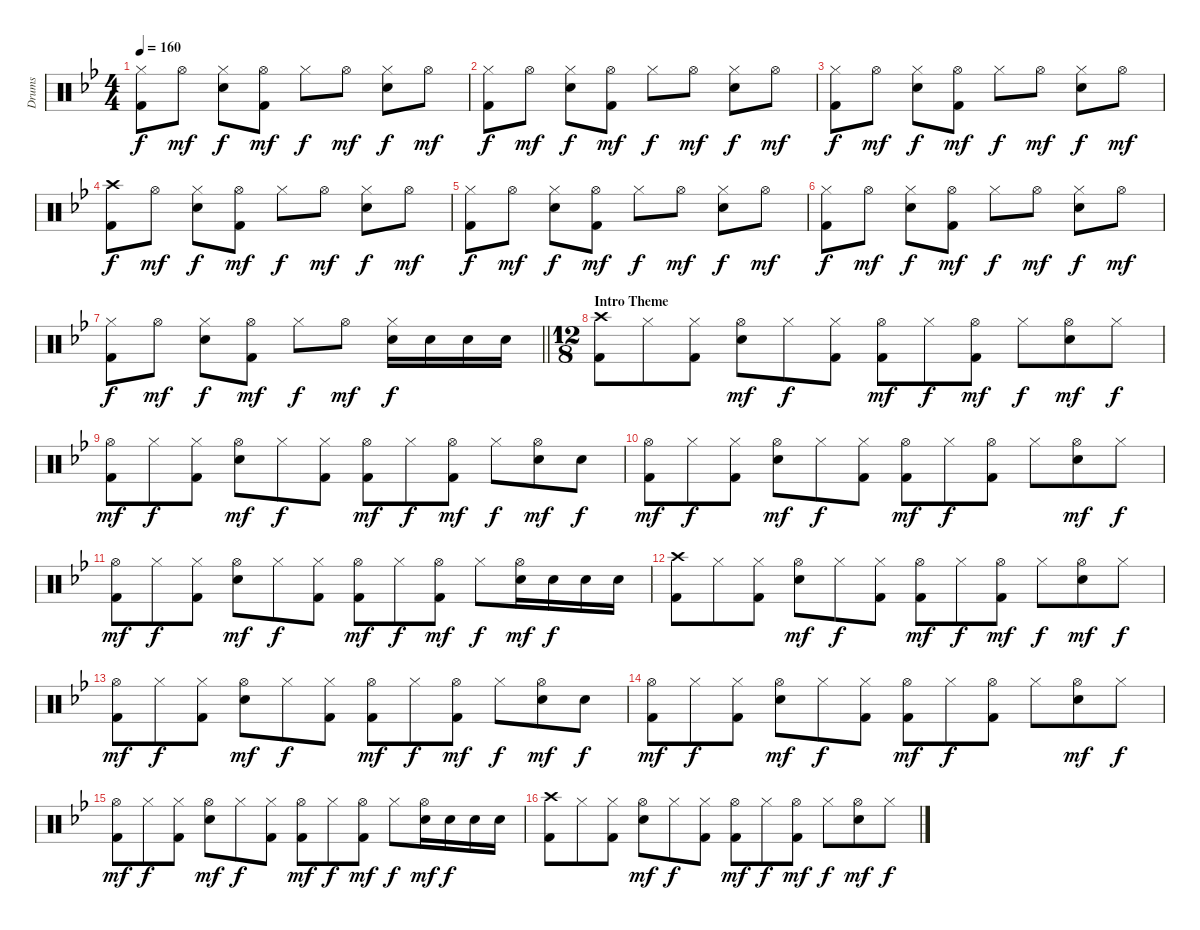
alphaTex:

\track ("Drums" "Drums") {instrument percussion}
\staff {score}
\articulation defaults
\ts (4 4)
\tempo 160
\clef neutral
\ks bb
("Hi-Hat (closed)" "Kick (hit) 2").8{dy f} "Hi-Hat (open)".8{dy mf} ("Hi-Hat (closed)" "Electric Snare (hit)").8{dy f} ("Hi-Hat (open)" "Kick (hit) 2").8{dy mf} "Hi-Hat (closed)".8{dy f} "Hi-Hat (open)".8{dy mf} ("Hi-Hat (closed)" "Electric Snare (hit)").8{dy f} "Hi-Hat (open)".8{dy mf} |
("Hi-Hat (closed)" "Kick (hit) 2").8{dy f} "Hi-Hat (open)".8{dy mf} ("Hi-Hat (closed)" "Electric Snare (hit)").8{dy f} ("Hi-Hat (open)" "Kick (hit) 2").8{dy mf} "Hi-Hat (closed)".8{dy f} "Hi-Hat (open)".8{dy mf} ("Hi-Hat (closed)" "Electric Snare (hit)").8{dy f} "Hi-Hat (open)".8{dy mf} |
("Hi-Hat (closed)" "Kick (hit) 2").8{dy f} "Hi-Hat (open)".8{dy mf} ("Hi-Hat (closed)" "Electric Snare (hit)").8{dy f} ("Hi-Hat (open)" "Kick (hit) 2").8{dy mf} "Hi-Hat (closed)".8{dy f} "Hi-Hat (open)".8{dy mf} ("Hi-Hat (closed)" "Electric Snare (hit)").8{dy f} "Hi-Hat (open)".8{dy mf} |
("Crash high (hit)" "Kick (hit) 2").8{dy f} "Hi-Hat (open)".8{dy mf} ("Hi-Hat (closed)" "Electric Snare (hit)").8{dy f} ("Hi-Hat (open)" "Kick (hit) 2").8{dy mf} "Hi-Hat (closed)".8{dy f} "Hi-Hat (open)".8{dy mf} ("Hi-Hat (closed)" "Electric Snare (hit)").8{dy f} "Hi-Hat (open)".8{dy mf} |
("Hi-Hat (closed)" "Kick (hit) 2").8{dy f} "Hi-Hat (open)".8{dy mf} ("Hi-Hat (closed)" "Electric Snare (hit)").8{dy f} ("Hi-Hat (open)" "Kick (hit) 2").8{dy mf} "Hi-Hat (closed)".8{dy f} "Hi-Hat (open)".8{dy mf} ("Hi-Hat (closed)" "Electric Snare (hit)").8{dy f} "Hi-Hat (open)".8{dy mf} |
("Hi-Hat (closed)" "Kick (hit) 2").8{dy f} "Hi-Hat (open)".8{dy mf} ("Hi-Hat (closed)" "Electric Snare (hit)").8{dy f} ("Hi-Hat (open)" "Kick (hit) 2").8{dy mf} "Hi-Hat (closed)".8{dy f} "Hi-Hat (open)".8{dy mf} ("Hi-Hat (closed)" "Electric Snare (hit)").8{dy f} "Hi-Hat (open)".8{dy mf} |
\barLineRight lightlight
("Hi-Hat (closed)" "Kick (hit) 2").8{dy f} "Hi-Hat (open)".8{dy mf} ("Hi-Hat (closed)" "Electric Snare (hit)").8{dy f} ("Hi-Hat (open)" "Kick (hit) 2").8{dy mf} "Hi-Hat (closed)".8{dy f} "Hi-Hat (open)".8{dy mf} ("Hi-Hat (closed)" "Electric Snare (hit)").16{dy f} "Electric Snare (hit)".16 "Electric Snare (hit)".16 "Electric Snare (hit)".16 |
\ts (12 8)
\section ("" "Intro Theme")
("Crash high (hit)" "Kick (hit) 2").8 "Hi-Hat (closed)".8 ("Hi-Hat (closed)" "Kick (hit) 2").8 ("Hi-Hat (open)" "Electric Snare (hit)").8{dy mf} "Hi-Hat (closed)".8{dy f} ("Hi-Hat (closed)" "Kick (hit) 2").8 ("Hi-Hat (open)" "Kick (hit) 2").8{dy mf} "Hi-Hat (closed)".8{dy f} ("Hi-Hat (open)" "Kick (hit) 2").8{dy mf} "Hi-Hat (closed)".8{dy f} ("Hi-Hat (open)" "Electric Snare (hit)").8{dy mf} "Hi-Hat (closed)".8{dy f} |
("Hi-Hat (open)" "Kick (hit) 2").8{dy mf} "Hi-Hat (closed)".8{dy f} ("Hi-Hat (closed)" "Kick (hit) 2").8 ("Hi-Hat (open)" "Electric Snare (hit)").8{dy mf} "Hi-Hat (closed)".8{dy f} ("Hi-Hat (closed)" "Kick (hit) 2").8 ("Hi-Hat (open)" "Kick (hit) 2").8{dy mf} "Hi-Hat (closed)".8{dy f} ("Hi-Hat (open)" "Kick (hit) 2").8{dy mf} "Hi-Hat (closed)".8{dy f} ("Hi-Hat (open)" "Electric Snare (hit)").8{dy mf} "Electric Snare (hit)".8{dy f} |
("Hi-Hat (open)" "Kick (hit) 2").8{dy mf} "Hi-Hat (closed)".8{dy f} ("Hi-Hat (closed)" "Kick (hit) 2").8 ("Hi-Hat (open)" "Electric Snare (hit)").8{dy mf} "Hi-Hat (closed)".8{dy f} ("Hi-Hat (closed)" "Kick (hit) 2").8 ("Hi-Hat (open)" "Kick (hit) 2").8{dy mf} "Hi-Hat (closed)".8{dy f} ("Hi-Hat (open)" "Kick (hit) 2").8 "Hi-Hat (closed)".8 ("Hi-Hat (open)" "Electric Snare (hit)").8{dy mf} "Hi-Hat (closed)".8{dy f} |
("Hi-Hat (open)" "Kick (hit) 2").8{dy mf} "Hi-Hat (closed)".8{dy f} ("Hi-Hat (closed)" "Kick (hit) 2").8 ("Hi-Hat (open)" "Electric Snare (hit)").8{dy mf} "Hi-Hat (closed)".8{dy f} ("Hi-Hat (closed)" "Kick (hit) 2").8 ("Hi-Hat (open)" "Kick (hit) 2").8{dy mf} "Hi-Hat (closed)".8{dy f} ("Hi-Hat (open)" "Kick (hit) 2").8{dy mf} "Hi-Hat (closed)".8{dy f} ("Hi-Hat (open)" "Electric Snare (hit)").16{dy mf} "Electric Snare (hit)".16{dy f} "Electric Snare (hit)".16 "Electric Snare (hit)".16 |
("Crash high (hit)" "Kick (hit) 2").8 "Hi-Hat (closed)".8 ("Hi-Hat (closed)" "Kick (hit) 2").8 ("Hi-Hat (open)" "Electric Snare (hit)").8{dy mf} "Hi-Hat (closed)".8{dy f} ("Hi-Hat (closed)" "Kick (hit) 2").8 ("Hi-Hat (open)" "Kick (hit) 2").8{dy mf} "Hi-Hat (closed)".8{dy f} ("Hi-Hat (open)" "Kick (hit) 2").8{dy mf} "Hi-Hat (closed)".8{dy f} ("Hi-Hat (open)" "Electric Snare (hit)").8{dy mf} "Hi-Hat (closed)".8{dy f} |
("Hi-Hat (open)" "Kick (hit) 2").8{dy mf} "Hi-Hat (closed)".8{dy f} ("Hi-Hat (closed)" "Kick (hit) 2").8 ("Hi-Hat (open)" "Electric Snare (hit)").8{dy mf} "Hi-Hat (closed)".8{dy f} ("Hi-Hat (closed)" "Kick (hit) 2").8 ("Hi-Hat (open)" "Kick (hit) 2").8{dy mf} "Hi-Hat (closed)".8{dy f} ("Hi-Hat (open)" "Kick (hit) 2").8{dy mf} "Hi-Hat (closed)".8{dy f} ("Hi-Hat (open)" "Electric Snare (hit)").8{dy mf} "Electric Snare (hit)".8{dy f} |
("Hi-Hat (open)" "Kick (hit) 2").8{dy mf} "Hi-Hat (closed)".8{dy f} ("Hi-Hat (closed)" "Kick (hit) 2").8 ("Hi-Hat (open)" "Electric Snare (hit)").8{dy mf} "Hi-Hat (closed)".8{dy f} ("Hi-Hat (closed)" "Kick (hit) 2").8 ("Hi-Hat (open)" "Kick (hit) 2").8{dy mf} "Hi-Hat (closed)".8{dy f} ("Hi-Hat (open)" "Kick (hit) 2").8 "Hi-Hat (closed)".8 ("Hi-Hat (open)" "Electric Snare (hit)").8{dy mf} "Hi-Hat (closed)".8{dy f} |
("Hi-Hat (open)" "Kick (hit) 2").8{dy mf} "Hi-Hat (closed)".8{dy f} ("Hi-Hat (closed)" "Kick (hit) 2").8 ("Hi-Hat (open)" "Electric Snare (hit)").8{dy mf} "Hi-Hat (closed)".8{dy f} ("Hi-Hat (closed)" "Kick (hit) 2").8 ("Hi-Hat (open)" "Kick (hit) 2").8{dy mf} "Hi-Hat (closed)".8{dy f} ("Hi-Hat (open)" "Kick (hit) 2").8{dy mf} "Hi-Hat (closed)".8{dy f} ("Hi-Hat (open)" "Electric Snare (hit)").16{dy mf} "Electric Snare (hit)".16{dy f} "Electric Snare (hit)".16 "Electric Snare (hit)".16 |
("Crash high (hit)" "Kick (hit) 2").8 "Hi-Hat (closed)".8 ("Hi-Hat (closed)" "Kick (hit) 2").8 ("Hi-Hat (open)" "Electric Snare (hit)").8{dy mf} "Hi-Hat (closed)".8{dy f} ("Hi-Hat (closed)" "Kick (hit) 2").8 ("Hi-Hat (open)" "Kick (hit) 2").8{dy mf} "Hi-Hat (closed)".8{dy f} ("Hi-Hat (open)" "Kick (hit) 2").8{dy mf} "Hi-Hat (closed)".8{dy f} ("Hi-Hat (open)" "Electric Snare (hit)").8{dy mf} "Hi-Hat (closed)".8{dy f}
